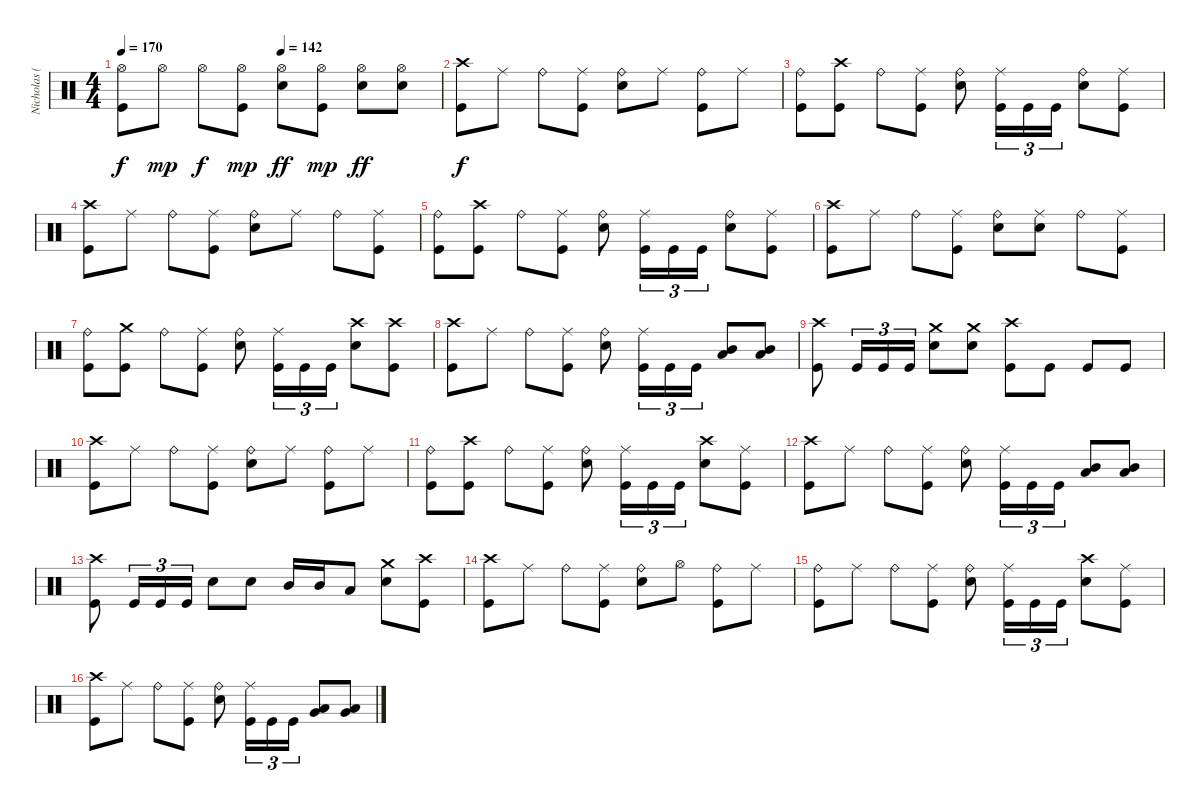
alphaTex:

\track ("Nicholas (Drums)" "Nicholas (") {instrument percussion}
\staff {score}
\articulation defaults
\ts (4 4)
\tempo 170
\tempo (142 0.5)
\clef neutral
\ks c
("Hi-Hat (open)" "Kick (hit)").8{dy f} "Hi-Hat (open)".8{dy mp} "Hi-Hat (open)".8{dy f} ("Hi-Hat (open)" "Kick (hit)").8{dy mp} ("Hi-Hat (open)" "Electric Snare (hit)").8{dy ff} ("Hi-Hat (open)" "Kick (hit)").8{dy mp} ("Hi-Hat (open)" "Electric Snare (hit)").8{dy ff} ("Hi-Hat (open)" "Electric Snare (hit)").8 |
("Crash high (hit)" "Kick (hit)").8{dy f} "Ride (middle)".8 "Ride (bell)".8 ("Ride (middle)" "Kick (hit)").8 ("Ride (bell)" "Electric Snare (hit)").8 "Ride (middle)".8 ("Ride (bell)" "Kick (hit)").8 "Ride (middle)".8 |
("Ride (bell)" "Kick (hit)").8 ("Crash high (hit)" "Kick (hit)").8 "Ride (bell)".8 ("Ride (middle)" "Kick (hit)").8 ("Ride (bell)" "Electric Snare (hit)").8 ("Ride (middle)" "Kick (hit)").16{tu (3 2)} "Kick (hit)".16{tu (3 2)} "Kick (hit)".16{tu (3 2)} ("Ride (bell)" "Electric Snare (hit)").8 ("Ride (middle)" "Kick (hit)").8 |
("Crash high (hit)" "Kick (hit)").8 "Ride (middle)".8 "Ride (bell)".8 ("Ride (middle)" "Kick (hit)").8 ("Ride (bell)" "Electric Snare (hit)").8 "Ride (middle)".8 "Ride (bell)".8 ("Ride (middle)" "Kick (hit)").8 |
("Ride (bell)" "Kick (hit)").8 ("Crash high (hit)" "Kick (hit)").8 "Ride (bell)".8 ("Ride (middle)" "Kick (hit)").8 ("Ride (bell)" "Electric Snare (hit)").8 ("Ride (middle)" "Kick (hit)").16{tu (3 2)} "Kick (hit)".16{tu (3 2)} "Kick (hit)".16{tu (3 2)} ("Ride (bell)" "Electric Snare (hit)").8 ("Ride (middle)" "Kick (hit)").8 |
("Crash high (hit)" "Kick (hit)").8 "Ride (middle)".8 "Ride (bell)".8 ("Ride (middle)" "Kick (hit)").8 ("Ride (bell)" "Electric Snare (hit)").8 ("Ride (middle)" "Electric Snare (hit)").8 "Ride (bell)".8 ("Ride (middle)" "Kick (hit)").8 |
("Ride (bell)" "Kick (hit)").8 ("Crash medium (hit)" "Kick (hit)").8 "Ride (bell)".8 ("Ride (middle)" "Kick (hit)").8 ("Ride (bell)" "Electric Snare (hit)").8 ("Ride (middle)" "Kick (hit)").16{tu (3 2)} "Kick (hit)".16{tu (3 2)} "Kick (hit)".16{tu (3 2)} ("Crash high (hit)" "Electric Snare (hit)").8 ("Crash high (hit)" "Kick (hit)").8 |
("Crash high (hit)" "Kick (hit)").8 "Ride (middle)".8 "Ride (bell)".8 ("Ride (middle)" "Kick (hit)").8 ("Ride (bell)" "Electric Snare (hit)").8 ("Ride (middle)" "Kick (hit)").16{tu (3 2)} "Kick (hit)".16{tu (3 2)} "Kick (hit)".16{tu (3 2)} ("Mid Tom (hit)" "Low Tom (hit)").8{bu 60} ("Mid Tom (hit)" "Low Tom (hit)").8{bu 60} |
("Crash high (hit)" "Kick (hit)").8 "Kick (hit)".16{tu (3 2)} "Kick (hit)".16{tu (3 2)} "Kick (hit)".16{tu (3 2)} ("Crash medium (hit)" "Electric Snare (hit)").8 ("Crash medium (hit)" "Electric Snare (hit)").8 ("Crash high (hit)" "Kick (hit)").8 "Kick (hit)".8 "Kick (hit)".8 "Kick (hit)".8 |
("Crash high (hit)" "Kick (hit)").8 "Ride (middle)".8 "Ride (bell)".8 ("Ride (middle)" "Kick (hit)").8 ("Ride (bell)" "Electric Snare (hit)").8 "Ride (middle)".8 ("Ride (bell)" "Kick (hit)").8 "Ride (middle)".8 |
("Ride (bell)" "Kick (hit)").8 ("Crash high (hit)" "Kick (hit)").8 "Ride (bell)".8 ("Ride (middle)" "Kick (hit)").8 ("Ride (bell)" "Electric Snare (hit)").8 ("Ride (middle)" "Kick (hit)").16{tu (3 2)} "Kick (hit)".16{tu (3 2)} "Kick (hit)".16{tu (3 2)} ("Crash high (hit)" "Electric Snare (hit)").8 ("Ride (middle)" "Kick (hit)").8 |
("Crash high (hit)" "Kick (hit)").8 "Ride (middle)".8 "Ride (bell)".8 ("Ride (middle)" "Kick (hit)").8 ("Ride (bell)" "Electric Snare (hit)").8 ("Ride (middle)" "Kick (hit)").16{tu (3 2)} "Kick (hit)".16{tu (3 2)} "Kick (hit)".16{tu (3 2)} ("Mid Tom (hit)" "Low Tom (hit)").8{bu 60} ("Mid Tom (hit)" "Low Tom (hit)").8{bu 60} |
("Crash high (hit)" "Kick (hit)").8 "Kick (hit)".16{tu (3 2)} "Kick (hit)".16{tu (3 2)} "Kick (hit)".16{tu (3 2)} "Electric Snare (hit)".8 "Electric Snare (hit)".8 "Mid Tom (hit)".16 "Mid Tom (hit)".16 "Low Tom (hit)".8 ("Crash medium (hit)" "Electric Snare (hit)").8 ("Crash high (hit)" "Kick (hit)").8 |
("Crash high (hit)" "Kick (hit)").8 "Ride (middle)".8 "Ride (bell)".8 ("Ride (middle)" "Kick (hit)").8 ("Ride (bell)" "Electric Snare (hit)").8 "Hi-Hat (open)".8 ("Ride (bell)" "Kick (hit)").8 "Ride (middle)".8 |
("Ride (bell)" "Kick (hit)").8 "Ride (middle)".8 "Ride (bell)".8 ("Ride (middle)" "Kick (hit)").8 ("Ride (bell)" "Electric Snare (hit)").8 ("Ride (middle)" "Kick (hit)").16{tu (3 2)} "Kick (hit)".16{tu (3 2)} "Kick (hit)".16{tu (3 2)} ("Crash high (hit)" "Electric Snare (hit)").8 ("Ride (middle)" "Kick (hit)").8 |
("Crash high (hit)" "Kick (hit)").8 "Ride (middle)".8 "Ride (bell)".8 ("Ride (middle)" "Kick (hit)").8 ("Ride (bell)" "Electric Snare (hit)").8 ("Ride (middle)" "Kick (hit)").16{tu (3 2)} "Kick (hit)".16{tu (3 2)} "Kick (hit)".16{tu (3 2)} ("Low Tom (hit)" "Very Low Tom (hit)").8{bu 60} ("Low Tom (hit)" "Very Low Tom (hit)").8{bu 60}
